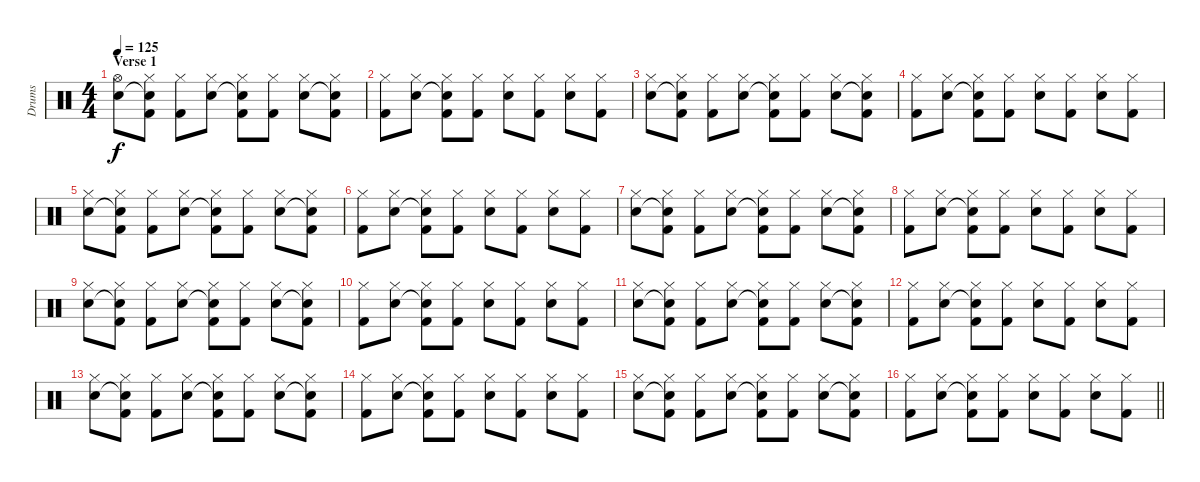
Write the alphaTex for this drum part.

\track ("Drums" "Drums") {instrument percussion}
\staff {score}
\articulation defaults
\ts (4 4)
\section ("" "Verse 1")
\tempo 125
\clef neutral
\ks c
("Hi-Hat (open)" "Snare (hit) 2").8{dy f} ("Hi-Hat (closed)" "Snare (hit) 2"{t} "Kick (hit) 2").8 ("Hi-Hat (closed)" "Kick (hit) 2").8 ("Hi-Hat (closed)" "Snare (hit) 2").8 ("Hi-Hat (closed)" "Snare (hit) 2"{t} "Kick (hit) 2").8 ("Hi-Hat (closed)" "Kick (hit) 2").8 ("Hi-Hat (closed)" "Snare (hit) 2").8 ("Hi-Hat (closed)" "Snare (hit) 2"{t} "Kick (hit) 2").8 |
("Hi-Hat (closed)" "Kick (hit) 2").8 ("Hi-Hat (closed)" "Snare (hit) 2").8 ("Hi-Hat (closed)" "Snare (hit) 2"{t} "Kick (hit) 2").8 ("Hi-Hat (closed)" "Kick (hit) 2").8 ("Hi-Hat (closed)" "Snare (hit) 2").8 ("Hi-Hat (closed)" "Kick (hit) 2").8 ("Hi-Hat (closed)" "Snare (hit) 2").8 ("Hi-Hat (closed)" "Kick (hit) 2").8 |
("Hi-Hat (closed)" "Snare (hit) 2").8 ("Hi-Hat (closed)" "Snare (hit) 2"{t} "Kick (hit) 2").8 ("Hi-Hat (closed)" "Kick (hit) 2").8 ("Hi-Hat (closed)" "Snare (hit) 2").8 ("Hi-Hat (closed)" "Snare (hit) 2"{t} "Kick (hit) 2").8 ("Hi-Hat (closed)" "Kick (hit) 2").8 ("Hi-Hat (closed)" "Snare (hit) 2").8 ("Hi-Hat (closed)" "Snare (hit) 2"{t} "Kick (hit) 2").8 |
("Hi-Hat (closed)" "Kick (hit) 2").8 ("Hi-Hat (closed)" "Snare (hit) 2").8 ("Hi-Hat (closed)" "Snare (hit) 2"{t} "Kick (hit) 2").8 ("Hi-Hat (closed)" "Kick (hit) 2").8 ("Hi-Hat (closed)" "Snare (hit) 2").8 ("Hi-Hat (closed)" "Kick (hit) 2").8 ("Hi-Hat (closed)" "Snare (hit) 2").8 ("Hi-Hat (closed)" "Kick (hit) 2").8 |
("Hi-Hat (closed)" "Snare (hit) 2").8 ("Hi-Hat (closed)" "Snare (hit) 2"{t} "Kick (hit) 2").8 ("Hi-Hat (closed)" "Kick (hit) 2").8 ("Hi-Hat (closed)" "Snare (hit) 2").8 ("Hi-Hat (closed)" "Snare (hit) 2"{t} "Kick (hit) 2").8 ("Hi-Hat (closed)" "Kick (hit) 2").8 ("Hi-Hat (closed)" "Snare (hit) 2").8 ("Hi-Hat (closed)" "Snare (hit) 2"{t} "Kick (hit) 2").8 |
("Hi-Hat (closed)" "Kick (hit) 2").8 ("Hi-Hat (closed)" "Snare (hit) 2").8 ("Hi-Hat (closed)" "Snare (hit) 2"{t} "Kick (hit) 2").8 ("Hi-Hat (closed)" "Kick (hit) 2").8 ("Hi-Hat (closed)" "Snare (hit) 2").8 ("Hi-Hat (closed)" "Kick (hit) 2").8 ("Hi-Hat (closed)" "Snare (hit) 2").8 ("Hi-Hat (closed)" "Kick (hit) 2").8 |
("Hi-Hat (closed)" "Snare (hit) 2").8 ("Hi-Hat (closed)" "Snare (hit) 2"{t} "Kick (hit) 2").8 ("Hi-Hat (closed)" "Kick (hit) 2").8 ("Hi-Hat (closed)" "Snare (hit) 2").8 ("Hi-Hat (closed)" "Snare (hit) 2"{t} "Kick (hit) 2").8 ("Hi-Hat (closed)" "Kick (hit) 2").8 ("Hi-Hat (closed)" "Snare (hit) 2").8 ("Hi-Hat (closed)" "Snare (hit) 2"{t} "Kick (hit) 2").8 |
("Hi-Hat (closed)" "Kick (hit) 2").8 ("Hi-Hat (closed)" "Snare (hit) 2").8 ("Hi-Hat (closed)" "Snare (hit) 2"{t} "Kick (hit) 2").8 ("Hi-Hat (closed)" "Kick (hit) 2").8 ("Hi-Hat (closed)" "Snare (hit) 2").8 ("Hi-Hat (closed)" "Kick (hit) 2").8 ("Hi-Hat (closed)" "Snare (hit) 2").8 ("Hi-Hat (closed)" "Kick (hit) 2").8 |
("Hi-Hat (closed)" "Snare (hit) 2").8 ("Hi-Hat (closed)" "Snare (hit) 2"{t} "Kick (hit) 2").8 ("Hi-Hat (closed)" "Kick (hit) 2").8 ("Hi-Hat (closed)" "Snare (hit) 2").8 ("Hi-Hat (closed)" "Snare (hit) 2"{t} "Kick (hit) 2").8 ("Hi-Hat (closed)" "Kick (hit) 2").8 ("Hi-Hat (closed)" "Snare (hit) 2").8 ("Hi-Hat (closed)" "Snare (hit) 2"{t} "Kick (hit) 2").8 |
("Hi-Hat (closed)" "Kick (hit) 2").8 ("Hi-Hat (closed)" "Snare (hit) 2").8 ("Hi-Hat (closed)" "Snare (hit) 2"{t} "Kick (hit) 2").8 ("Hi-Hat (closed)" "Kick (hit) 2").8 ("Hi-Hat (closed)" "Snare (hit) 2").8 ("Hi-Hat (closed)" "Kick (hit) 2").8 ("Hi-Hat (closed)" "Snare (hit) 2").8 ("Hi-Hat (closed)" "Kick (hit) 2").8 |
("Hi-Hat (closed)" "Snare (hit) 2").8 ("Hi-Hat (closed)" "Snare (hit) 2"{t} "Kick (hit) 2").8 ("Hi-Hat (closed)" "Kick (hit) 2").8 ("Hi-Hat (closed)" "Snare (hit) 2").8 ("Hi-Hat (closed)" "Snare (hit) 2"{t} "Kick (hit) 2").8 ("Hi-Hat (closed)" "Kick (hit) 2").8 ("Hi-Hat (closed)" "Snare (hit) 2").8 ("Hi-Hat (closed)" "Snare (hit) 2"{t} "Kick (hit) 2").8 |
("Hi-Hat (closed)" "Kick (hit) 2").8 ("Hi-Hat (closed)" "Snare (hit) 2").8 ("Hi-Hat (closed)" "Snare (hit) 2"{t} "Kick (hit) 2").8 ("Hi-Hat (closed)" "Kick (hit) 2").8 ("Hi-Hat (closed)" "Snare (hit) 2").8 ("Hi-Hat (closed)" "Kick (hit) 2").8 ("Hi-Hat (closed)" "Snare (hit) 2").8 ("Hi-Hat (closed)" "Kick (hit) 2").8 |
("Hi-Hat (closed)" "Snare (hit) 2").8 ("Hi-Hat (closed)" "Snare (hit) 2"{t} "Kick (hit) 2").8 ("Hi-Hat (closed)" "Kick (hit) 2").8 ("Hi-Hat (closed)" "Snare (hit) 2").8 ("Hi-Hat (closed)" "Snare (hit) 2"{t} "Kick (hit) 2").8 ("Hi-Hat (closed)" "Kick (hit) 2").8 ("Hi-Hat (closed)" "Snare (hit) 2").8 ("Hi-Hat (closed)" "Snare (hit) 2"{t} "Kick (hit) 2").8 |
("Hi-Hat (closed)" "Kick (hit) 2").8 ("Hi-Hat (closed)" "Snare (hit) 2").8 ("Hi-Hat (closed)" "Snare (hit) 2"{t} "Kick (hit) 2").8 ("Hi-Hat (closed)" "Kick (hit) 2").8 ("Hi-Hat (closed)" "Snare (hit) 2").8 ("Hi-Hat (closed)" "Kick (hit) 2").8 ("Hi-Hat (closed)" "Snare (hit) 2").8 ("Hi-Hat (closed)" "Kick (hit) 2").8 |
("Hi-Hat (closed)" "Snare (hit) 2").8 ("Hi-Hat (closed)" "Snare (hit) 2"{t} "Kick (hit) 2").8 ("Hi-Hat (closed)" "Kick (hit) 2").8 ("Hi-Hat (closed)" "Snare (hit) 2").8 ("Hi-Hat (closed)" "Snare (hit) 2"{t} "Kick (hit) 2").8 ("Hi-Hat (closed)" "Kick (hit) 2").8 ("Hi-Hat (closed)" "Snare (hit) 2").8 ("Hi-Hat (closed)" "Snare (hit) 2"{t} "Kick (hit) 2").8 |
\barLineRight lightlight
("Hi-Hat (closed)" "Kick (hit) 2").8 ("Hi-Hat (closed)" "Snare (hit) 2").8 ("Hi-Hat (closed)" "Snare (hit) 2"{t} "Kick (hit) 2").8 ("Hi-Hat (closed)" "Kick (hit) 2").8 ("Hi-Hat (closed)" "Snare (hit) 2").8 ("Hi-Hat (closed)" "Kick (hit) 2").8 ("Hi-Hat (closed)" "Snare (hit) 2").8 ("Hi-Hat (closed)" "Kick (hit) 2").8
